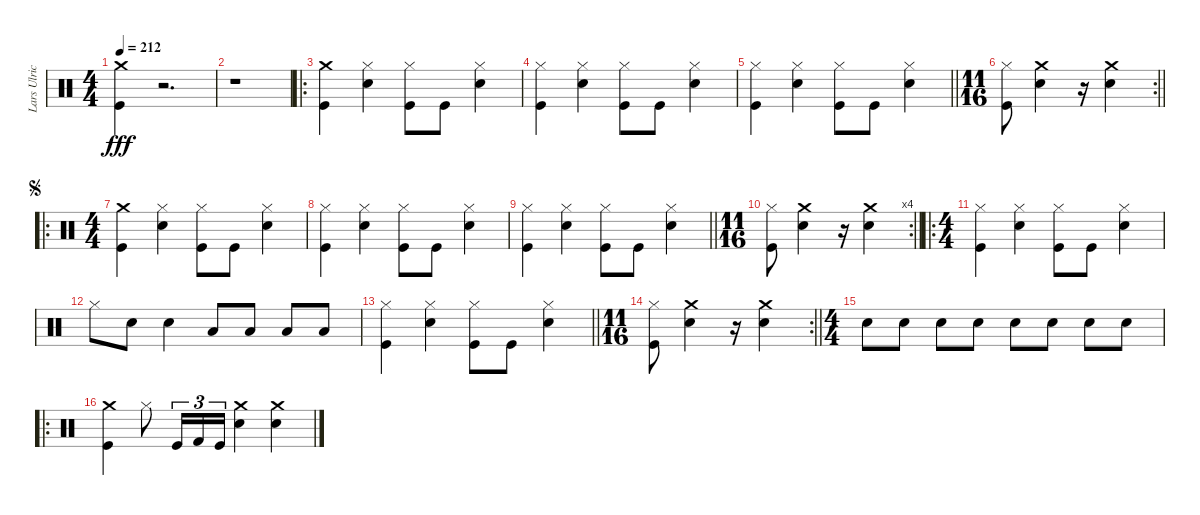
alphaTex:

\track ("Lars Ulrich" "Lars Ulric") {instrument percussion}
\staff {score}
\articulation defaults
\ts (4 4)
\tempo 212
\clef neutral
\ks c
("Kick (hit)" "Crash medium (hit)").4{dy fff} r.2{d} |
r.1 |
\ro
("Kick (hit)" "Crash medium (hit)").4 ("Snare (hit) 2" "Hi-Hat (closed)").4 ("Hi-Hat (closed)" "Kick (hit)").8 "Kick (hit)".8 ("Hi-Hat (closed)" "Snare (hit) 2").4 |
("Kick (hit)" "Hi-Hat (closed)").4 ("Hi-Hat (closed)" "Snare (hit) 2").4 ("Hi-Hat (closed)" "Kick (hit)").8 "Kick (hit)".8 ("Hi-Hat (closed)" "Snare (hit) 2").4 |
\barLineRight lightlight
("Kick (hit)" "Hi-Hat (closed)").4 ("Hi-Hat (closed)" "Snare (hit) 2").4 ("Hi-Hat (closed)" "Kick (hit)").8 "Kick (hit)".8 ("Hi-Hat (closed)" "Snare (hit) 2").4 |
\rc 2
\ts (11 16)
\barLineRight lightlight
("Hi-Hat (closed)" "Kick (hit)").8 ("Snare (hit) 2" "Crash medium (hit)").4 r.16 ("Snare (hit) 2" "Crash medium (hit)").4 |
\ro
\ts (4 4)
\jump segno
("Kick (hit)" "Crash medium (hit)").4 ("Snare (hit) 2" "Hi-Hat (closed)").4 ("Hi-Hat (closed)" "Kick (hit)").8 "Kick (hit)".8 ("Hi-Hat (closed)" "Snare (hit) 2").4 |
("Kick (hit)" "Hi-Hat (closed)").4 ("Hi-Hat (closed)" "Snare (hit) 2").4 ("Hi-Hat (closed)" "Kick (hit)").8 "Kick (hit)".8 ("Hi-Hat (closed)" "Snare (hit) 2").4 |
\barLineRight lightlight
("Kick (hit)" "Hi-Hat (closed)").4 ("Hi-Hat (closed)" "Snare (hit) 2").4 ("Hi-Hat (closed)" "Kick (hit)").8 "Kick (hit)".8 ("Hi-Hat (closed)" "Snare (hit) 2").4 |
\rc 4
\ts (11 16)
\barLineRight lightlight
("Hi-Hat (closed)" "Kick (hit)").8 ("Snare (hit) 2" "Crash medium (hit)").4 r.16 ("Snare (hit) 2" "Crash medium (hit)").4 |
\ro
\ts (4 4)
("Kick (hit)" "Hi-Hat (closed)").4 ("Snare (hit) 2" "Hi-Hat (closed)").4 ("Kick (hit)" "Hi-Hat (closed)").8 "Kick (hit)".8 ("Snare (hit) 2" "Hi-Hat (closed)").4 |
"Hi-Hat (closed)".8 "Snare (hit) 2".8 "Snare (hit) 2".4 "Low Tom (hit)".8 "Low Tom (hit)".8 "Low Tom (hit)".8 "Low Tom (hit)".8 |
\barLineRight lightlight
("Kick (hit)" "Hi-Hat (closed)").4 ("Hi-Hat (closed)" "Snare (hit) 2").4 ("Kick (hit)" "Hi-Hat (closed)").8 "Kick (hit)".8 ("Snare (hit) 2" "Hi-Hat (closed)").4 |
\rc 2
\ts (11 16)
\barLineRight lightlight
("Kick (hit)" "Hi-Hat (closed)").8 ("Crash medium (hit)" "Snare (hit) 2").4 r.16 ("Crash medium (hit)" "Snare (hit) 2").4 |
\ts (4 4)
"Snare (hit) 2".8 "Snare (hit) 2".8 "Snare (hit) 2".8 "Snare (hit) 2".8 "Snare (hit) 2".8 "Snare (hit) 2".8 "Snare (hit) 2".8 "Snare (hit) 2".8 |
\ro
("Crash medium (hit)" "Kick (hit)").4 "Hi-Hat (closed)".8 "Kick (hit)".16{tu (3 2)} "Kick (hit) 2".16{tu (3 2)} "Kick (hit)".16{tu (3 2)} ("Crash medium (hit)" "Snare (hit) 2").4 ("Crash medium (hit)" "Snare (hit) 2").4
